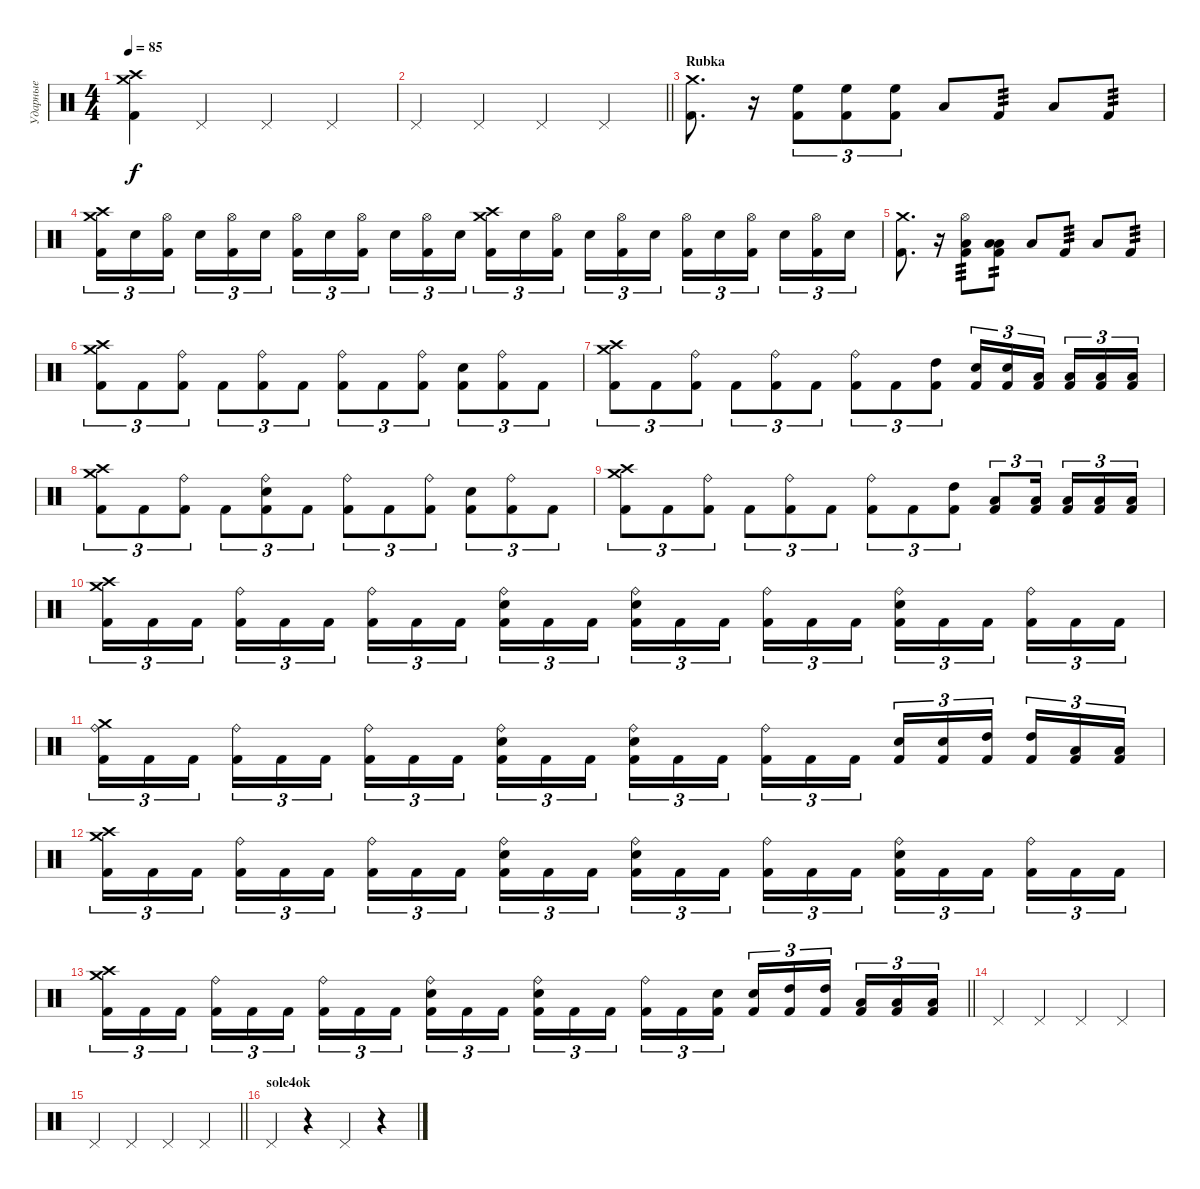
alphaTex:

\track ("Ударные" "Ударные") {mute instrument percussion}
\staff {score}
\articulation defaults
\ts (4 4)
\tempo 85
\clef neutral
\ks c
("Crash medium (hit)" "Crash high (hit)" "Kick (hit) 2").4{dy f} "Pedal Hi-Hat (hit)".4 "Pedal Hi-Hat (hit)".4 "Pedal Hi-Hat (hit)".4 |
\barLineRight lightlight "Pedal Hi-Hat (hit)".4 "Pedal Hi-Hat (hit)".4 "Pedal Hi-Hat (hit)".4 "Pedal Hi-Hat (hit)".4
|
\section ("" "Rubka")
("Crash medium (hit)" "Kick (hit) 2").8{d} r.16 ("High Floor Tom (hit)" "Kick (hit) 2").8{tu (3 2)} ("High Floor Tom (hit)" "Kick (hit) 2").8{tu (3 2)} ("High Floor Tom (hit)" "Kick (hit) 2").8{tu (3 2)} "Low Tom (hit)".8 "Kick (hit) 2".8{tp 3} "Low Tom (hit)".8 "Kick (hit) 2".8{tp 3} |
("Crash high (hit)" "Crash medium (hit)" "Kick (hit) 2").16{tu (3 2)} "Electric Snare (hit)".16{tu (3 2)} ("Hi-Hat (open)" "Kick (hit) 2").16{tu (3 2) beam splitsecondary} "Electric Snare (hit)".16{tu (3 2)} ("Hi-Hat (open)" "Kick (hit) 2").16{tu (3 2)} "Electric Snare (hit)".16{tu (3 2)} ("Hi-Hat (open)" "Kick (hit) 2").16{tu (3 2)} "Electric Snare (hit)".16{tu (3 2)} ("Hi-Hat (open)" "Kick (hit) 2").16{tu (3 2) beam splitsecondary} "Electric Snare (hit)".16{tu (3 2)} ("Hi-Hat (open)" "Kick (hit) 2").16{tu (3 2)} "Electric Snare (hit)".16{tu (3 2)} ("Crash high (hit)" "Crash medium (hit)" "Kick (hit) 2").16{tu (3 2)} "Electric Snare (hit)".16{tu (3 2)} ("Hi-Hat (open)" "Kick (hit) 2").16{tu (3 2) beam splitsecondary} "Electric Snare (hit)".16{tu (3 2)} ("Hi-Hat (open)" "Kick (hit) 2").16{tu (3 2)} "Electric Snare (hit)".16{tu (3 2)} ("Hi-Hat (open)" "Kick (hit) 2").16{tu (3 2)} "Electric Snare (hit)".16{tu (3 2)} ("Hi-Hat (open)" "Kick (hit) 2").16{tu (3 2) beam splitsecondary} "Electric Snare (hit)".16{tu (3 2)} ("Hi-Hat (open)" "Kick (hit) 2").16{tu (3 2)} "Electric Snare (hit)".16{tu (3 2)} |
("Crash medium (hit)" "Kick (hit) 2").8{d} r.16 ("Hi-Hat (open)" "Low Tom (hit)" "Kick (hit) 2").8{tp 3} ("Low Tom (hit)" "Low Floor Tom (hit)" "Kick (hit) 2").8{tp 2} "Low Tom (hit)".8 "Kick (hit) 2".8{tp 3} "Low Tom (hit)".8 "Kick (hit) 2".8{tp 3} |
("Crash high (hit)" "Crash medium (hit)" "Kick (hit) 2").8{tu (3 2)} "Kick (hit) 2".8{tu (3 2)} ("Ride (bell)" "Kick (hit) 2").8{tu (3 2)} "Kick (hit) 2".8{tu (3 2)} ("Ride (bell)" "Kick (hit) 2").8{tu (3 2)} "Kick (hit) 2".8{tu (3 2)} ("Ride (bell)" "Kick (hit) 2").8{tu (3 2)} "Kick (hit) 2".8{tu (3 2)} ("Ride (bell)" "Kick (hit) 2").8{tu (3 2)} ("Electric Snare (hit)" "Kick (hit) 2").8{tu (3 2)} ("Ride (bell)" "Kick (hit) 2").8{tu (3 2)} "Kick (hit) 2".8{tu (3 2)} |
("Crash high (hit)" "Crash medium (hit)" "Kick (hit) 2").8{tu (3 2)} "Kick (hit) 2".8{tu (3 2)} ("Ride (bell)" "Kick (hit) 2").8{tu (3 2)} "Kick (hit) 2".8{tu (3 2)} ("Ride (bell)" "Kick (hit) 2").8{tu (3 2)} "Kick (hit) 2".8{tu (3 2)} ("Ride (bell)" "Kick (hit) 2").8{tu (3 2)} "Kick (hit) 2".8{tu (3 2)} ("High Tom (hit)" "Kick (hit) 2").8{tu (3 2)} ("Electric Snare (hit)" "Kick (hit) 2").16{tu (3 2)} ("Electric Snare (hit)" "Kick (hit) 2").16{tu (3 2)} ("Low Tom (hit)" "Kick (hit) 2").16{tu (3 2) beam splitsecondary} ("Low Tom (hit)" "Kick (hit) 2").16{tu (3 2)} ("Low Floor Tom (hit)" "Kick (hit) 2").16{tu (3 2)} ("Low Floor Tom (hit)" "Kick (hit) 2").16{tu (3 2)} |
("Crash high (hit)" "Crash medium (hit)" "Kick (hit) 2").8{tu (3 2)} "Kick (hit) 2".8{tu (3 2)} ("Ride (bell)" "Kick (hit) 2").8{tu (3 2)} "Kick (hit) 2".8{tu (3 2)} ("Ride (bell)" "Electric Snare (hit)" "Kick (hit) 2").8{tu (3 2)} "Kick (hit) 2".8{tu (3 2)} ("Ride (bell)" "Kick (hit) 2").8{tu (3 2)} "Kick (hit) 2".8{tu (3 2)} ("Ride (bell)" "Kick (hit) 2").8{tu (3 2)} ("Electric Snare (hit)" "Kick (hit) 2").8{tu (3 2)} ("Ride (bell)" "Kick (hit) 2").8{tu (3 2)} "Kick (hit) 2".8{tu (3 2)} |
("Crash high (hit)" "Crash medium (hit)" "Kick (hit) 2").8{tu (3 2)} "Kick (hit) 2".8{tu (3 2)} ("Ride (bell)" "Kick (hit) 2").8{tu (3 2)} "Kick (hit) 2".8{tu (3 2)} ("Ride (bell)" "Kick (hit) 2").8{tu (3 2)} "Kick (hit) 2".8{tu (3 2)} ("Ride (bell)" "Kick (hit) 2").8{tu (3 2)} "Kick (hit) 2".8{tu (3 2)} ("High Tom (hit)" "Kick (hit) 2").8{tu (3 2)} ("Low Tom (hit)" "Kick (hit) 2").8{tu (3 2)} ("Low Tom (hit)" "Kick (hit) 2").16{tu (3 2) beam splitsecondary} ("Low Tom (hit)" "Kick (hit) 2").16{tu (3 2)} ("Low Floor Tom (hit)" "Kick (hit) 2").16{tu (3 2)} ("Low Floor Tom (hit)" "Kick (hit) 2").16{tu (3 2)} |
("Crash high (hit)" "Crash medium (hit)" "Kick (hit) 2").16{tu (3 2)} "Kick (hit) 2".16{tu (3 2)} "Kick (hit) 2".16{tu (3 2) beam splitsecondary} ("Ride (bell)" "Kick (hit) 2").16{tu (3 2)} "Kick (hit) 2".16{tu (3 2)} "Kick (hit) 2".16{tu (3 2)} ("Ride (bell)" "Kick (hit) 2").16{tu (3 2)} "Kick (hit) 2".16{tu (3 2)} "Kick (hit) 2".16{tu (3 2) beam splitsecondary} ("Ride (bell)" "Electric Snare (hit)" "Kick (hit) 2").16{tu (3 2)} "Kick (hit) 2".16{tu (3 2)} "Kick (hit) 2".16{tu (3 2)} ("Ride (bell)" "Electric Snare (hit)" "Kick (hit) 2").16{tu (3 2)} "Kick (hit) 2".16{tu (3 2)} "Kick (hit) 2".16{tu (3 2) beam splitsecondary} ("Ride (bell)" "Kick (hit) 2").16{tu (3 2)} "Kick (hit) 2".16{tu (3 2)} "Kick (hit) 2".16{tu (3 2)} ("Ride (bell)" "Electric Snare (hit)" "Kick (hit) 2").16{tu (3 2)} "Kick (hit) 2".16{tu (3 2)} "Kick (hit) 2".16{tu (3 2) beam splitsecondary} ("Ride (bell)" "Kick (hit) 2").16{tu (3 2)} "Kick (hit) 2".16{tu (3 2)} "Kick (hit) 2".16{tu (3 2)} |
("Ride (bell)" "Crash medium (hit)" "Kick (hit) 2").16{tu (3 2)} "Kick (hit) 2".16{tu (3 2)} "Kick (hit) 2".16{tu (3 2) beam splitsecondary} ("Ride (bell)" "Kick (hit) 2").16{tu (3 2)} "Kick (hit) 2".16{tu (3 2)} "Kick (hit) 2".16{tu (3 2)} ("Ride (bell)" "Kick (hit) 2").16{tu (3 2)} "Kick (hit) 2".16{tu (3 2)} "Kick (hit) 2".16{tu (3 2) beam splitsecondary} ("Ride (bell)" "Electric Snare (hit)" "Kick (hit) 2").16{tu (3 2)} "Kick (hit) 2".16{tu (3 2)} "Kick (hit) 2".16{tu (3 2)} ("Ride (bell)" "Electric Snare (hit)" "Kick (hit) 2").16{tu (3 2)} "Kick (hit) 2".16{tu (3 2)} "Kick (hit) 2".16{tu (3 2) beam splitsecondary} ("Ride (bell)" "Kick (hit) 2").16{tu (3 2)} "Kick (hit) 2".16{tu (3 2)} "Kick (hit) 2".16{tu (3 2)} ("Electric Snare (hit)" "Kick (hit) 2").16{tu (3 2)} ("Electric Snare (hit)" "Kick (hit) 2").16{tu (3 2)} ("High Tom (hit)" "Kick (hit) 2").16{tu (3 2) beam splitsecondary} ("High Tom (hit)" "Kick (hit) 2").16{tu (3 2)} ("Low Tom (hit)" "Kick (hit) 2").16{tu (3 2)} ("Low Tom (hit)" "Kick (hit) 2").16{tu (3 2)} |
("Crash high (hit)" "Crash medium (hit)" "Kick (hit) 2").16{tu (3 2)} "Kick (hit) 2".16{tu (3 2)} "Kick (hit) 2".16{tu (3 2) beam splitsecondary} ("Ride (bell)" "Kick (hit) 2").16{tu (3 2)} "Kick (hit) 2".16{tu (3 2)} "Kick (hit) 2".16{tu (3 2)} ("Ride (bell)" "Kick (hit) 2").16{tu (3 2)} "Kick (hit) 2".16{tu (3 2)} "Kick (hit) 2".16{tu (3 2) beam splitsecondary} ("Ride (bell)" "Electric Snare (hit)" "Kick (hit) 2").16{tu (3 2)} "Kick (hit) 2".16{tu (3 2)} "Kick (hit) 2".16{tu (3 2)} ("Ride (bell)" "Electric Snare (hit)" "Kick (hit) 2").16{tu (3 2)} "Kick (hit) 2".16{tu (3 2)} "Kick (hit) 2".16{tu (3 2) beam splitsecondary} ("Ride (bell)" "Kick (hit) 2").16{tu (3 2)} "Kick (hit) 2".16{tu (3 2)} "Kick (hit) 2".16{tu (3 2)} ("Ride (bell)" "Electric Snare (hit)" "Kick (hit) 2").16{tu (3 2)} "Kick (hit) 2".16{tu (3 2)} "Kick (hit) 2".16{tu (3 2) beam splitsecondary} ("Ride (bell)" "Kick (hit) 2").16{tu (3 2)} "Kick (hit) 2".16{tu (3 2)} "Kick (hit) 2".16{tu (3 2)} |
\barLineRight lightlight
("Crash high (hit)" "Crash medium (hit)" "Kick (hit) 2").16{tu (3 2)} "Kick (hit) 2".16{tu (3 2)} "Kick (hit) 2".16{tu (3 2) beam splitsecondary} ("Ride (bell)" "Kick (hit) 2").16{tu (3 2)} "Kick (hit) 2".16{tu (3 2)} "Kick (hit) 2".16{tu (3 2)} ("Ride (bell)" "Kick (hit) 2").16{tu (3 2)} "Kick (hit) 2".16{tu (3 2)} "Kick (hit) 2".16{tu (3 2) beam splitsecondary} ("Ride (bell)" "Electric Snare (hit)" "Kick (hit) 2").16{tu (3 2)} "Kick (hit) 2".16{tu (3 2)} "Kick (hit) 2".16{tu (3 2)} ("Ride (bell)" "Electric Snare (hit)" "Kick (hit) 2").16{tu (3 2)} "Kick (hit) 2".16{tu (3 2)} "Kick (hit) 2".16{tu (3 2) beam splitsecondary} ("Ride (bell)" "Kick (hit) 2").16{tu (3 2)} "Kick (hit) 2".16{tu (3 2)} ("Electric Snare (hit)" "Kick (hit) 2").16{tu (3 2)} ("Electric Snare (hit)" "Kick (hit) 2").16{tu (3 2)} ("High Tom (hit)" "Kick (hit) 2").16{tu (3 2)} ("High Tom (hit)" "Kick (hit) 2").16{tu (3 2) beam splitsecondary} ("Low Tom (hit)" "Kick (hit) 2").16{tu (3 2)} ("Low Tom (hit)" "Kick (hit) 2").16{tu (3 2)} ("Low Tom (hit)" "Kick (hit) 2").16{tu (3 2)} |
"Pedal Hi-Hat (hit)".4 "Pedal Hi-Hat (hit)".4 "Pedal Hi-Hat (hit)".4 "Pedal Hi-Hat (hit)".4 |
\barLineRight lightlight "Pedal Hi-Hat (hit)".4 "Pedal Hi-Hat (hit)".4 "Pedal Hi-Hat (hit)".4 "Pedal Hi-Hat (hit)".4
|
\section ("" "sole4ok")
"Pedal Hi-Hat (hit)".4 r.4 "Pedal Hi-Hat (hit)".4 r.4
